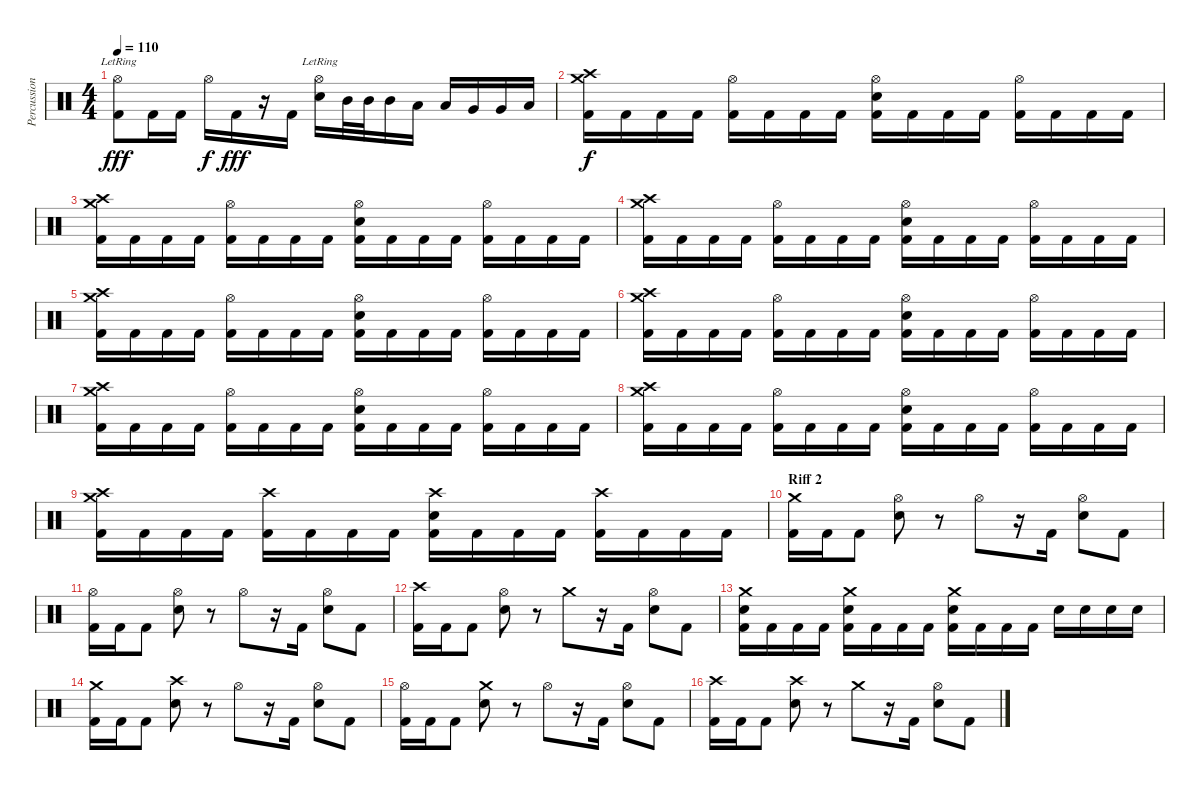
\track ("Percussions" "Percussion") {instrument percussion}
\staff {score}
\articulation defaults
\ts (4 4)
\tempo 110
\clef neutral
\ks c
("Hi-Hat (open)"{lr} "Kick (hit) 2").8{dy fff} "Kick (hit) 2".16 "Kick (hit) 2".16 "Hi-Hat (open)".16{dy f} "Kick (hit) 2".16{dy fff} r.16 "Kick (hit) 2".16 ("Hi-Hat (open)"{lr} "Electric Snare (hit)").16 "Mid Tom (hit)".32 "Mid Tom (hit)".32 "Mid Tom (hit)".16 "Low Tom (hit)".16 "Low Tom (hit)".16 "Very Low Tom (hit)".16 "Very Low Tom (hit)".16 "Low Floor Tom (hit)".16 |
("Crash medium (hit)" "Crash high (hit)" "Kick (hit) 2").16{dy f} "Kick (hit) 2".16 "Kick (hit) 2".16 "Kick (hit) 2".16 ("Hi-Hat (open)" "Kick (hit) 2").16 "Kick (hit) 2".16 "Kick (hit) 2".16 "Kick (hit) 2".16 ("Hi-Hat (open)" "Electric Snare (hit)" "Kick (hit) 2").16 "Kick (hit) 2".16 "Kick (hit) 2".16 "Kick (hit) 2".16 ("Hi-Hat (open)" "Kick (hit) 2").16 "Kick (hit) 2".16 "Kick (hit) 2".16 "Kick (hit) 2".16 |
("Crash medium (hit)" "Crash high (hit)" "Kick (hit) 2").16 "Kick (hit) 2".16 "Kick (hit) 2".16 "Kick (hit) 2".16 ("Hi-Hat (open)" "Kick (hit) 2").16 "Kick (hit) 2".16 "Kick (hit) 2".16 "Kick (hit) 2".16 ("Hi-Hat (open)" "Electric Snare (hit)" "Kick (hit) 2").16 "Kick (hit) 2".16 "Kick (hit) 2".16 "Kick (hit) 2".16 ("Hi-Hat (open)" "Kick (hit) 2").16 "Kick (hit) 2".16 "Kick (hit) 2".16 "Kick (hit) 2".16 |
("Crash medium (hit)" "Crash high (hit)" "Kick (hit) 2").16 "Kick (hit) 2".16 "Kick (hit) 2".16 "Kick (hit) 2".16 ("Hi-Hat (open)" "Kick (hit) 2").16 "Kick (hit) 2".16 "Kick (hit) 2".16 "Kick (hit) 2".16 ("Hi-Hat (open)" "Electric Snare (hit)" "Kick (hit) 2").16 "Kick (hit) 2".16 "Kick (hit) 2".16 "Kick (hit) 2".16 ("Hi-Hat (open)" "Kick (hit) 2").16 "Kick (hit) 2".16 "Kick (hit) 2".16 "Kick (hit) 2".16 |
("Crash medium (hit)" "Crash high (hit)" "Kick (hit) 2").16 "Kick (hit) 2".16 "Kick (hit) 2".16 "Kick (hit) 2".16 ("Hi-Hat (open)" "Kick (hit) 2").16 "Kick (hit) 2".16 "Kick (hit) 2".16 "Kick (hit) 2".16 ("Hi-Hat (open)" "Electric Snare (hit)" "Kick (hit) 2").16 "Kick (hit) 2".16 "Kick (hit) 2".16 "Kick (hit) 2".16 ("Hi-Hat (open)" "Kick (hit) 2").16 "Kick (hit) 2".16 "Kick (hit) 2".16 "Kick (hit) 2".16 |
("Crash medium (hit)" "Crash high (hit)" "Kick (hit) 2").16 "Kick (hit) 2".16 "Kick (hit) 2".16 "Kick (hit) 2".16 ("Hi-Hat (open)" "Kick (hit) 2").16 "Kick (hit) 2".16 "Kick (hit) 2".16 "Kick (hit) 2".16 ("Hi-Hat (open)" "Electric Snare (hit)" "Kick (hit) 2").16 "Kick (hit) 2".16 "Kick (hit) 2".16 "Kick (hit) 2".16 ("Hi-Hat (open)" "Kick (hit) 2").16 "Kick (hit) 2".16 "Kick (hit) 2".16 "Kick (hit) 2".16 |
("Crash medium (hit)" "Crash high (hit)" "Kick (hit) 2").16 "Kick (hit) 2".16 "Kick (hit) 2".16 "Kick (hit) 2".16 ("Hi-Hat (open)" "Kick (hit) 2").16 "Kick (hit) 2".16 "Kick (hit) 2".16 "Kick (hit) 2".16 ("Hi-Hat (open)" "Electric Snare (hit)" "Kick (hit) 2").16 "Kick (hit) 2".16 "Kick (hit) 2".16 "Kick (hit) 2".16 ("Hi-Hat (open)" "Kick (hit) 2").16 "Kick (hit) 2".16 "Kick (hit) 2".16 "Kick (hit) 2".16 |
("Crash medium (hit)" "Crash high (hit)" "Kick (hit) 2").16 "Kick (hit) 2".16 "Kick (hit) 2".16 "Kick (hit) 2".16 ("Hi-Hat (open)" "Kick (hit) 2").16 "Kick (hit) 2".16 "Kick (hit) 2".16 "Kick (hit) 2".16 ("Hi-Hat (open)" "Electric Snare (hit)" "Kick (hit) 2").16 "Kick (hit) 2".16 "Kick (hit) 2".16 "Kick (hit) 2".16 ("Hi-Hat (open)" "Kick (hit) 2").16 "Kick (hit) 2".16 "Kick (hit) 2".16 "Kick (hit) 2".16 |
("Crash medium (hit)" "Crash high (hit)" "Kick (hit) 2").16 "Kick (hit) 2".16 "Kick (hit) 2".16 "Kick (hit) 2".16 ("Crash high (hit)" "Kick (hit) 2").16 "Kick (hit) 2".16 "Kick (hit) 2".16 "Kick (hit) 2".16 ("Crash high (hit)" "Electric Snare (hit)" "Kick (hit) 2").16 "Kick (hit) 2".16 "Kick (hit) 2".16 "Kick (hit) 2".16 ("Crash high (hit)" "Kick (hit) 2").16 "Kick (hit) 2".16 "Kick (hit) 2".16 "Kick (hit) 2".16 |
\section ("" "Riff 2")
("Crash medium (hit)" "Kick (hit) 2").16 "Kick (hit) 2".16 "Kick (hit) 2".8 ("Hi-Hat (open)" "Electric Snare (hit)").8 r.8 "Hi-Hat (open)".8 r.16 "Kick (hit) 2".16 ("Hi-Hat (open)" "Electric Snare (hit)").8 "Kick (hit) 2".8 |
("Hi-Hat (open)" "Kick (hit) 2").16 "Kick (hit) 2".16 "Kick (hit) 2".8 ("Hi-Hat (open)" "Electric Snare (hit)").8 r.8 "Hi-Hat (open)".8 r.16 "Kick (hit) 2".16 ("Hi-Hat (open)" "Electric Snare (hit)").8 "Kick (hit) 2".8 |
("Crash high (hit)" "Kick (hit) 2").16 "Kick (hit) 2".16 "Kick (hit) 2".8 ("Hi-Hat (open)" "Electric Snare (hit)").8 r.8 "Crash medium (hit)".8 r.16 "Kick (hit) 2".16 ("Hi-Hat (open)" "Electric Snare (hit)").8 "Kick (hit) 2".8 |
("Crash medium (hit)" "Electric Snare (hit)" "Kick (hit) 2").16 "Kick (hit) 2".16 "Kick (hit) 2".16 "Kick (hit) 2".16 ("Crash medium (hit)" "Electric Snare (hit)" "Kick (hit) 2").16 "Kick (hit) 2".16 "Kick (hit) 2".16 "Kick (hit) 2".16 ("Crash medium (hit)" "Electric Snare (hit)" "Kick (hit) 2").16 "Kick (hit) 2".16 "Kick (hit) 2".16 "Kick (hit) 2".16 "Electric Snare (hit)".16 "Electric Snare (hit)".16 "Electric Snare (hit)".16 "Electric Snare (hit)".16 |
("Crash medium (hit)" "Kick (hit) 2").16 "Kick (hit) 2".16 "Kick (hit) 2".8 ("Crash high (hit)" "Electric Snare (hit)").8 r.8 "Hi-Hat (open)".8 r.16 "Kick (hit) 2".16 ("Hi-Hat (open)" "Electric Snare (hit)").8 "Kick (hit) 2".8 |
("Hi-Hat (open)" "Kick (hit) 2").16 "Kick (hit) 2".16 "Kick (hit) 2".8 ("Crash medium (hit)" "Electric Snare (hit)").8 r.8 "Hi-Hat (open)".8 r.16 "Kick (hit) 2".16 ("Hi-Hat (open)" "Electric Snare (hit)").8 "Kick (hit) 2".8 |
("Crash high (hit)" "Kick (hit) 2").16 "Kick (hit) 2".16 "Kick (hit) 2".8 ("Crash high (hit)" "Electric Snare (hit)").8 r.8 "Crash medium (hit)".8 r.16 "Kick (hit) 2".16 ("Hi-Hat (open)" "Electric Snare (hit)").8 "Kick (hit) 2".8
